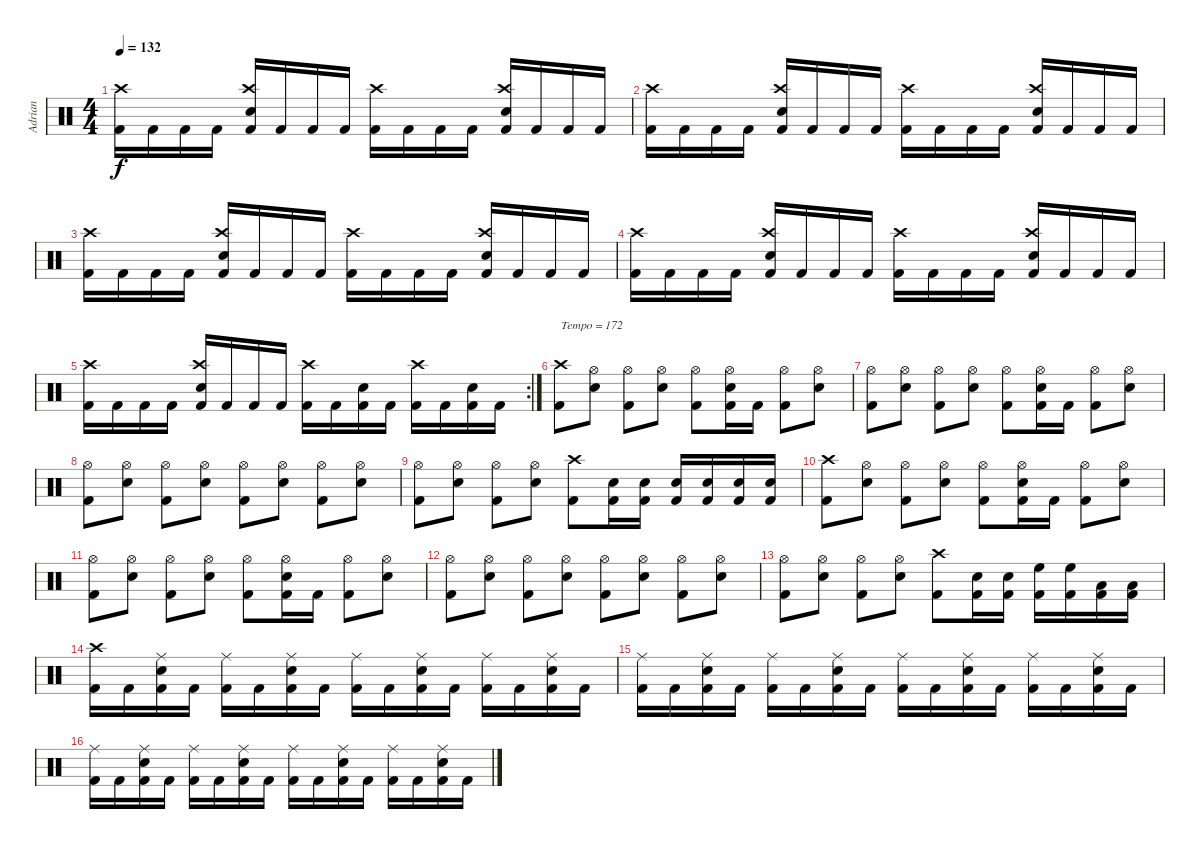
\track ("Adrian" "Adrian") {instrument percussion}
\staff {score}
\articulation defaults
\ts (4 4)
\tempo 132
\clef neutral
\ks c
("Kick (hit) 2" "Crash high (hit)").16{dy f} "Kick (hit) 2".16 "Kick (hit) 2".16 "Kick (hit) 2".16 ("Kick (hit) 2" "Snare (hit) 2" "Crash high (hit)").16 "Kick (hit) 2".16 "Kick (hit) 2".16 "Kick (hit) 2".16 ("Kick (hit) 2" "Crash high (hit)").16 "Kick (hit) 2".16 "Kick (hit) 2".16 "Kick (hit) 2".16 ("Kick (hit) 2" "Snare (hit) 2" "Crash high (hit)").16 "Kick (hit) 2".16 "Kick (hit) 2".16 "Kick (hit) 2".16 |
("Kick (hit) 2" "Crash high (hit)").16 "Kick (hit) 2".16 "Kick (hit) 2".16 "Kick (hit) 2".16 ("Kick (hit) 2" "Snare (hit) 2" "Crash high (hit)").16 "Kick (hit) 2".16 "Kick (hit) 2".16 "Kick (hit) 2".16 ("Kick (hit) 2" "Crash high (hit)").16 "Kick (hit) 2".16 "Kick (hit) 2".16 "Kick (hit) 2".16 ("Kick (hit) 2" "Snare (hit) 2" "Crash high (hit)").16 "Kick (hit) 2".16 "Kick (hit) 2".16 "Kick (hit) 2".16 |
("Kick (hit) 2" "Crash high (hit)").16 "Kick (hit) 2".16 "Kick (hit) 2".16 "Kick (hit) 2".16 ("Kick (hit) 2" "Snare (hit) 2" "Crash high (hit)").16 "Kick (hit) 2".16 "Kick (hit) 2".16 "Kick (hit) 2".16 ("Kick (hit) 2" "Crash high (hit)").16 "Kick (hit) 2".16 "Kick (hit) 2".16 "Kick (hit) 2".16 ("Kick (hit) 2" "Snare (hit) 2" "Crash high (hit)").16 "Kick (hit) 2".16 "Kick (hit) 2".16 "Kick (hit) 2".16 |
("Kick (hit) 2" "Crash high (hit)").16 "Kick (hit) 2".16 "Kick (hit) 2".16 "Kick (hit) 2".16 ("Kick (hit) 2" "Snare (hit) 2" "Crash high (hit)").16 "Kick (hit) 2".16 "Kick (hit) 2".16 "Kick (hit) 2".16 ("Kick (hit) 2" "Crash high (hit)").16 "Kick (hit) 2".16 "Kick (hit) 2".16 "Kick (hit) 2".16 ("Kick (hit) 2" "Snare (hit) 2" "Crash high (hit)").16 "Kick (hit) 2".16 "Kick (hit) 2".16 "Kick (hit) 2".16 |
\rc 2
("Kick (hit) 2" "Crash high (hit)").16 "Kick (hit) 2".16 "Kick (hit) 2".16 "Kick (hit) 2".16 ("Kick (hit) 2" "Snare (hit) 2" "Crash high (hit)").16 "Kick (hit) 2".16 "Kick (hit) 2".16 "Kick (hit) 2".16 ("Kick (hit) 2" "Crash high (hit)").16 "Kick (hit) 2".16 ("Kick (hit) 2" "Snare (hit) 2").16 "Kick (hit) 2".16 ("Kick (hit) 2" "Crash high (hit)").16 "Kick (hit) 2".16 ("Kick (hit) 2" "Snare (hit) 2").16 "Kick (hit) 2".16 |
("Kick (hit) 2" "Crash high (hit)").8{txt "Tempo = 172"} ("Snare (hit) 2" "Hi-Hat (open)").8 ("Kick (hit) 2" "Hi-Hat (open)").8 ("Snare (hit) 2" "Hi-Hat (open)").8 ("Kick (hit) 2" "Hi-Hat (open)").8 ("Kick (hit) 2" "Snare (hit) 2" "Hi-Hat (open)").16 "Kick (hit) 2".16 ("Kick (hit) 2" "Hi-Hat (open)").8 ("Snare (hit) 2" "Hi-Hat (open)").8 |
("Kick (hit) 2" "Hi-Hat (open)").8 ("Snare (hit) 2" "Hi-Hat (open)").8 ("Kick (hit) 2" "Hi-Hat (open)").8 ("Snare (hit) 2" "Hi-Hat (open)").8 ("Kick (hit) 2" "Hi-Hat (open)").8 ("Kick (hit) 2" "Snare (hit) 2" "Hi-Hat (open)").16 "Kick (hit) 2".16 ("Kick (hit) 2" "Hi-Hat (open)").8 ("Snare (hit) 2" "Hi-Hat (open)").8 |
("Kick (hit) 2" "Hi-Hat (open)").8 ("Snare (hit) 2" "Hi-Hat (open)").8 ("Kick (hit) 2" "Hi-Hat (open)").8 ("Snare (hit) 2" "Hi-Hat (open)").8 ("Kick (hit) 2" "Hi-Hat (open)").8 ("Snare (hit) 2" "Hi-Hat (open)").8 ("Kick (hit) 2" "Hi-Hat (open)").8 ("Snare (hit) 2" "Hi-Hat (open)").8 |
("Kick (hit) 2" "Hi-Hat (open)").8 ("Snare (hit) 2" "Hi-Hat (open)").8 ("Kick (hit) 2" "Hi-Hat (open)").8 ("Snare (hit) 2" "Hi-Hat (open)").8 ("Kick (hit) 2" "Crash high (hit)").8 ("Kick (hit) 2" "Snare (hit) 2").16 ("Kick (hit) 2" "Snare (hit) 2").16 ("Kick (hit) 2" "Snare (hit) 2").16 ("Kick (hit) 2" "Snare (hit) 2").16 ("Kick (hit) 2" "Snare (hit) 2").16 ("Kick (hit) 2" "Snare (hit) 2").16 |
("Kick (hit) 2" "Crash high (hit)").8 ("Snare (hit) 2" "Hi-Hat (open)").8 ("Kick (hit) 2" "Hi-Hat (open)").8 ("Snare (hit) 2" "Hi-Hat (open)").8 ("Kick (hit) 2" "Hi-Hat (open)").8 ("Kick (hit) 2" "Snare (hit) 2" "Hi-Hat (open)").16 "Kick (hit) 2".16 ("Kick (hit) 2" "Hi-Hat (open)").8 ("Snare (hit) 2" "Hi-Hat (open)").8 |
("Kick (hit) 2" "Hi-Hat (open)").8 ("Snare (hit) 2" "Hi-Hat (open)").8 ("Kick (hit) 2" "Hi-Hat (open)").8 ("Snare (hit) 2" "Hi-Hat (open)").8 ("Kick (hit) 2" "Hi-Hat (open)").8 ("Kick (hit) 2" "Snare (hit) 2" "Hi-Hat (open)").16 "Kick (hit) 2".16 ("Kick (hit) 2" "Hi-Hat (open)").8 ("Snare (hit) 2" "Hi-Hat (open)").8 |
("Kick (hit) 2" "Hi-Hat (open)").8 ("Snare (hit) 2" "Hi-Hat (open)").8 ("Kick (hit) 2" "Hi-Hat (open)").8 ("Snare (hit) 2" "Hi-Hat (open)").8 ("Kick (hit) 2" "Hi-Hat (open)").8 ("Snare (hit) 2" "Hi-Hat (open)").8 ("Kick (hit) 2" "Hi-Hat (open)").8 ("Snare (hit) 2" "Hi-Hat (open)").8 |
("Kick (hit) 2" "Hi-Hat (open)").8 ("Snare (hit) 2" "Hi-Hat (open)").8 ("Kick (hit) 2" "Hi-Hat (open)").8 ("Snare (hit) 2" "Hi-Hat (open)").8 ("Kick (hit) 2" "Crash high (hit)").8 ("Kick (hit) 2" "Snare (hit) 2").16 ("Kick (hit) 2" "Snare (hit) 2").16 ("Kick (hit) 2" "High Floor Tom (hit)").16 ("Kick (hit) 2" "High Floor Tom (hit)").16 ("Kick (hit) 2" "Low Tom (hit)").16 ("Kick (hit) 2" "Low Tom (hit)").16 |
("Kick (hit) 2" "Crash high (hit)").16 "Kick (hit) 2".16 ("Kick (hit) 2" "Snare (hit) 2" "Ride (middle)").16 "Kick (hit) 2".16 ("Kick (hit) 2" "Ride (middle)").16 "Kick (hit) 2".16 ("Kick (hit) 2" "Snare (hit) 2" "Ride (middle)").16 "Kick (hit) 2".16 ("Kick (hit) 2" "Ride (middle)").16 "Kick (hit) 2".16 ("Kick (hit) 2" "Snare (hit) 2" "Ride (middle)").16 "Kick (hit) 2".16 ("Kick (hit) 2" "Ride (middle)").16 "Kick (hit) 2".16 ("Kick (hit) 2" "Snare (hit) 2" "Ride (middle)").16 "Kick (hit) 2".16 |
("Kick (hit) 2" "Ride (middle)").16 "Kick (hit) 2".16 ("Kick (hit) 2" "Snare (hit) 2" "Ride (middle)").16 "Kick (hit) 2".16 ("Kick (hit) 2" "Ride (middle)").16 "Kick (hit) 2".16 ("Kick (hit) 2" "Snare (hit) 2" "Ride (middle)").16 "Kick (hit) 2".16 ("Kick (hit) 2" "Ride (middle)").16 "Kick (hit) 2".16 ("Kick (hit) 2" "Snare (hit) 2" "Ride (middle)").16 "Kick (hit) 2".16 ("Kick (hit) 2" "Ride (middle)").16 "Kick (hit) 2".16 ("Kick (hit) 2" "Snare (hit) 2" "Ride (middle)").16 "Kick (hit) 2".16 |
("Kick (hit) 2" "Ride (middle)").16 "Kick (hit) 2".16 ("Kick (hit) 2" "Snare (hit) 2" "Ride (middle)").16 "Kick (hit) 2".16 ("Kick (hit) 2" "Ride (middle)").16 "Kick (hit) 2".16 ("Kick (hit) 2" "Snare (hit) 2" "Ride (middle)").16 "Kick (hit) 2".16 ("Kick (hit) 2" "Ride (middle)").16 "Kick (hit) 2".16 ("Kick (hit) 2" "Snare (hit) 2" "Ride (middle)").16 "Kick (hit) 2".16 ("Kick (hit) 2" "Ride (middle)").16 "Kick (hit) 2".16 ("Kick (hit) 2" "Snare (hit) 2" "Ride (middle)").16 "Kick (hit) 2".16
